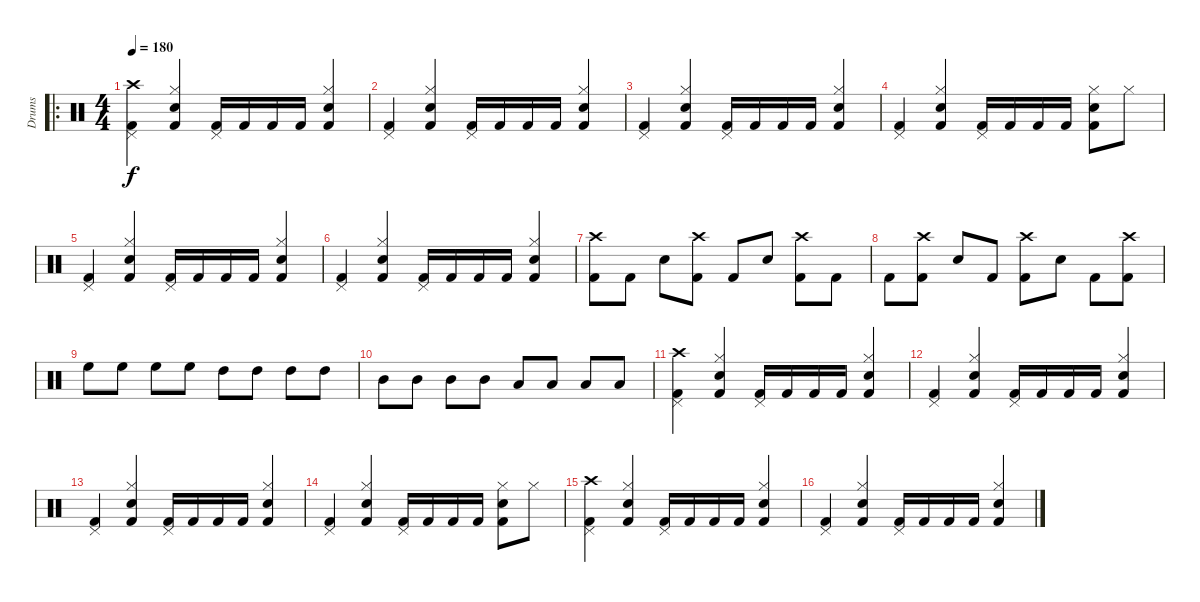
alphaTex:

\track ("Drums" "Drums") {instrument percussion}
\staff {score}
\articulation defaults
\ro
\ts (4 4)
\tempo 180
\clef neutral
\ks c
("Crash high (hit)" "Pedal Hi-Hat (hit)" "Kick (hit) 2").4{dy f} ("Hi-Hat (closed)" "Snare (hit) 2" "Kick (hit) 2").4 ("Pedal Hi-Hat (hit)" "Kick (hit) 2").16 "Kick (hit) 2".16 "Kick (hit) 2".16 "Kick (hit) 2".16 ("Hi-Hat (closed)" "Snare (hit) 2" "Kick (hit) 2").4 |
("Pedal Hi-Hat (hit)" "Kick (hit) 2").4 ("Hi-Hat (closed)" "Snare (hit) 2" "Kick (hit) 2").4 ("Pedal Hi-Hat (hit)" "Kick (hit) 2").16 "Kick (hit) 2".16 "Kick (hit) 2".16 "Kick (hit) 2".16 ("Hi-Hat (closed)" "Snare (hit) 2" "Kick (hit) 2").4 |
("Pedal Hi-Hat (hit)" "Kick (hit) 2").4 ("Hi-Hat (closed)" "Snare (hit) 2" "Kick (hit) 2").4 ("Pedal Hi-Hat (hit)" "Kick (hit) 2").16 "Kick (hit) 2".16 "Kick (hit) 2".16 "Kick (hit) 2".16 ("Hi-Hat (closed)" "Snare (hit) 2" "Kick (hit) 2").4 |
("Pedal Hi-Hat (hit)" "Kick (hit) 2").4 ("Hi-Hat (closed)" "Snare (hit) 2" "Kick (hit) 2").4 ("Pedal Hi-Hat (hit)" "Kick (hit) 2").16 "Kick (hit) 2".16 "Kick (hit) 2".16 "Kick (hit) 2".16 ("Hi-Hat (closed)" "Snare (hit) 2" "Kick (hit) 2").8 "Hi-Hat (closed)".8 |
("Pedal Hi-Hat (hit)" "Kick (hit) 2").4 ("Hi-Hat (closed)" "Snare (hit) 2" "Kick (hit) 2").4 ("Pedal Hi-Hat (hit)" "Kick (hit) 2").16 "Kick (hit) 2".16 "Kick (hit) 2".16 "Kick (hit) 2".16 ("Hi-Hat (closed)" "Snare (hit) 2" "Kick (hit) 2").4 |
("Pedal Hi-Hat (hit)" "Kick (hit) 2").4 ("Hi-Hat (closed)" "Snare (hit) 2" "Kick (hit) 2").4 ("Pedal Hi-Hat (hit)" "Kick (hit) 2").16 "Kick (hit) 2".16 "Kick (hit) 2".16 "Kick (hit) 2".16 ("Hi-Hat (closed)" "Snare (hit) 2" "Kick (hit) 2").4 |
("Crash high (hit)" "Kick (hit) 2").8 "Kick (hit) 2".8 "Snare (hit) 2".8 ("Crash high (hit)" "Kick (hit) 2").8 "Kick (hit) 2".8 "Snare (hit) 2".8 ("Crash high (hit)" "Kick (hit) 2").8 "Kick (hit) 2".8 |
"Kick (hit) 2".8 ("Crash high (hit)" "Kick (hit) 2").8 "Snare (hit) 2".8 "Kick (hit) 2".8 ("Crash high (hit)" "Kick (hit) 2").8 "Snare (hit) 2".8 "Kick (hit) 2".8 ("Crash high (hit)" "Kick (hit) 2").8 |
"High Floor Tom (hit)".8 "High Floor Tom (hit)".8 "High Floor Tom (hit)".8 "High Floor Tom (hit)".8 "High Tom (hit)".8 "High Tom (hit)".8 "High Tom (hit)".8 "High Tom (hit)".8 |
"Mid Tom (hit)".8 "Mid Tom (hit)".8 "Mid Tom (hit)".8 "Mid Tom (hit)".8 "Low Tom (hit)".8 "Low Tom (hit)".8 "Low Tom (hit)".8 "Low Tom (hit)".8 |
("Crash high (hit)" "Pedal Hi-Hat (hit)" "Kick (hit) 2").4 ("Hi-Hat (closed)" "Snare (hit) 2" "Kick (hit) 2").4 ("Pedal Hi-Hat (hit)" "Kick (hit) 2").16 "Kick (hit) 2".16 "Kick (hit) 2".16 "Kick (hit) 2".16 ("Hi-Hat (closed)" "Snare (hit) 2" "Kick (hit) 2").4 |
("Pedal Hi-Hat (hit)" "Kick (hit) 2").4 ("Hi-Hat (closed)" "Snare (hit) 2" "Kick (hit) 2").4 ("Pedal Hi-Hat (hit)" "Kick (hit) 2").16 "Kick (hit) 2".16 "Kick (hit) 2".16 "Kick (hit) 2".16 ("Hi-Hat (closed)" "Snare (hit) 2" "Kick (hit) 2").4 |
("Pedal Hi-Hat (hit)" "Kick (hit) 2").4 ("Hi-Hat (closed)" "Snare (hit) 2" "Kick (hit) 2").4 ("Pedal Hi-Hat (hit)" "Kick (hit) 2").16 "Kick (hit) 2".16 "Kick (hit) 2".16 "Kick (hit) 2".16 ("Hi-Hat (closed)" "Snare (hit) 2" "Kick (hit) 2").4 |
("Pedal Hi-Hat (hit)" "Kick (hit) 2").4 ("Hi-Hat (closed)" "Snare (hit) 2" "Kick (hit) 2").4 ("Pedal Hi-Hat (hit)" "Kick (hit) 2").16 "Kick (hit) 2".16 "Kick (hit) 2".16 "Kick (hit) 2".16 ("Hi-Hat (closed)" "Snare (hit) 2" "Kick (hit) 2").8 "Hi-Hat (closed)".8 |
("Crash high (hit)" "Pedal Hi-Hat (hit)" "Kick (hit) 2").4 ("Hi-Hat (closed)" "Snare (hit) 2" "Kick (hit) 2").4 ("Pedal Hi-Hat (hit)" "Kick (hit) 2").16 "Kick (hit) 2".16 "Kick (hit) 2".16 "Kick (hit) 2".16 ("Hi-Hat (closed)" "Snare (hit) 2" "Kick (hit) 2").4 |
("Pedal Hi-Hat (hit)" "Kick (hit) 2").4 ("Hi-Hat (closed)" "Snare (hit) 2" "Kick (hit) 2").4 ("Pedal Hi-Hat (hit)" "Kick (hit) 2").16 "Kick (hit) 2".16 "Kick (hit) 2".16 "Kick (hit) 2".16 ("Hi-Hat (closed)" "Snare (hit) 2" "Kick (hit) 2").4
